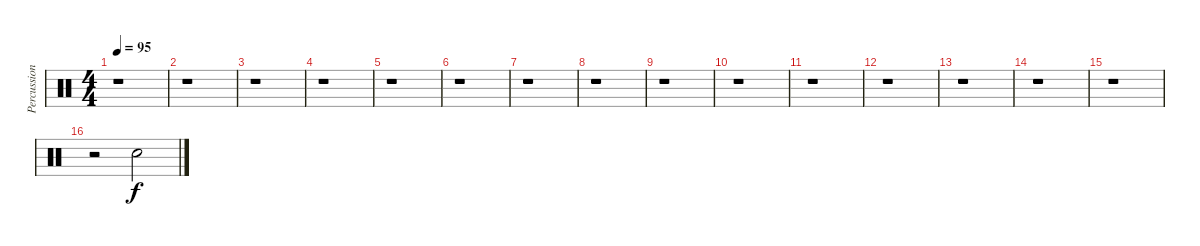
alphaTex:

\track ("Percussion" "Percussion") {instrument percussion}
\staff {score}
\articulation defaults
\ts (4 4)
\tempo 95
\clef neutral
\ks c
r.1{dy f} |
r.1 |
r.1 |
r.1 |
r.1 |
r.1 |
r.1 |
r.1 |
r.1 |
r.1 |
r.1 |
r.1 |
r.1 |
r.1 |
r.1 |
r.2 "Snare (hit) 2".2
